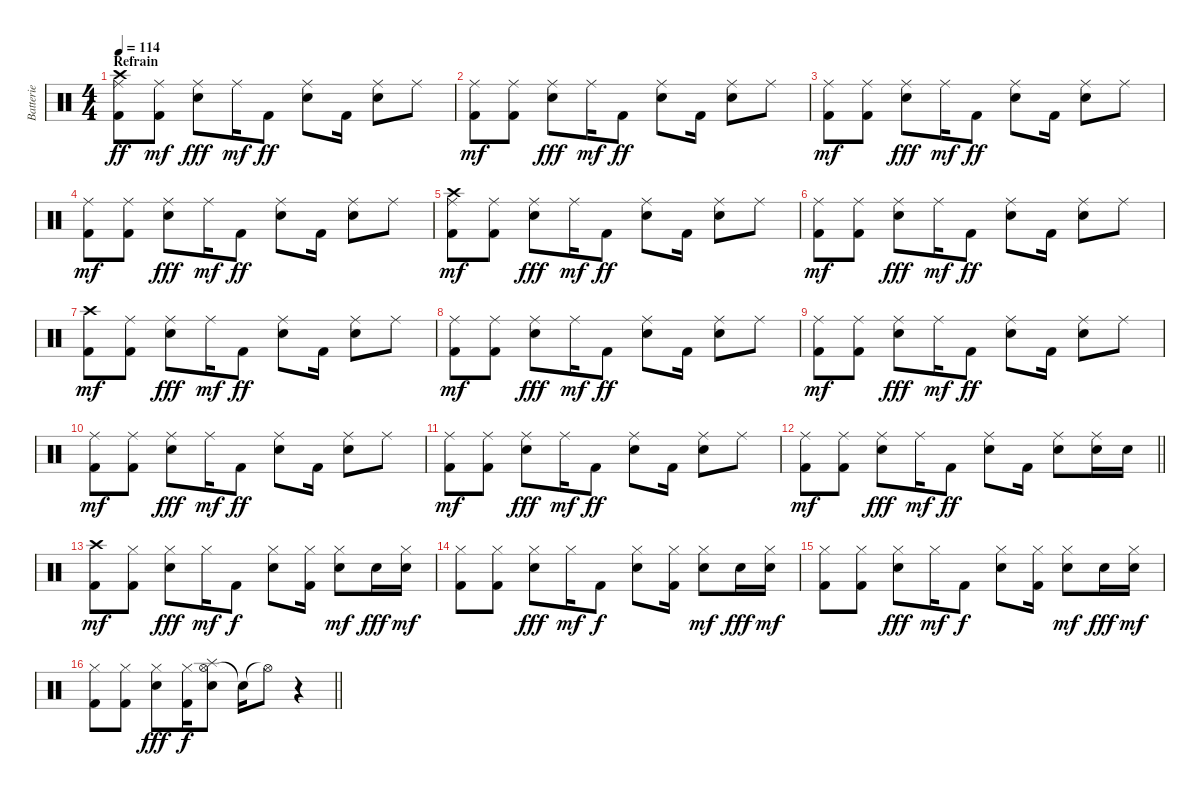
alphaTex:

\track ("Batterie" "Batterie") {instrument percussion}
\staff {score}
\articulation defaults
\ts (4 4)
\section ("" "Refrain")
\tempo 114
\clef neutral
\ks c
("Ride (middle)" "Crash high (hit)" "Kick (hit) 2").8{dy ff} ("Ride (middle)" "Kick (hit) 2").8{dy mf} ("Ride (middle)" "Snare (hit) 2").8{dy fff} "Ride (middle)".16{dy mf} "Kick (hit) 2".8{dy ff} ("Ride (middle)" "Snare (hit) 2").8 "Kick (hit) 2".16 ("Ride (middle)" "Snare (hit) 2").8 "Ride (middle)".8 |
("Ride (middle)" "Kick (hit) 2").8{dy mf} ("Ride (middle)" "Kick (hit) 2").8 ("Ride (middle)" "Snare (hit) 2").8{dy fff} "Ride (middle)".16{dy mf} "Kick (hit) 2".8{dy ff} ("Ride (middle)" "Snare (hit) 2").8 "Kick (hit) 2".16 ("Ride (middle)" "Snare (hit) 2").8 "Ride (middle)".8 |
("Ride (middle)" "Kick (hit) 2").8{dy mf} ("Ride (middle)" "Kick (hit) 2").8 ("Ride (middle)" "Snare (hit) 2").8{dy fff} "Ride (middle)".16{dy mf} "Kick (hit) 2".8{dy ff} ("Ride (middle)" "Snare (hit) 2").8 "Kick (hit) 2".16 ("Ride (middle)" "Snare (hit) 2").8 "Ride (middle)".8 |
("Ride (middle)" "Kick (hit) 2").8{dy mf} ("Ride (middle)" "Kick (hit) 2").8 ("Ride (middle)" "Snare (hit) 2").8{dy fff} "Ride (middle)".16{dy mf} "Kick (hit) 2".8{dy ff} ("Ride (middle)" "Snare (hit) 2").8 "Kick (hit) 2".16 ("Ride (middle)" "Snare (hit) 2").8 "Ride (middle)".8 |
("Ride (middle)" "Crash high (hit)" "Kick (hit) 2").8{dy mf} ("Ride (middle)" "Kick (hit) 2").8 ("Ride (middle)" "Snare (hit) 2").8{dy fff} "Ride (middle)".16{dy mf} "Kick (hit) 2".8{dy ff} ("Ride (middle)" "Snare (hit) 2").8 "Kick (hit) 2".16 ("Ride (middle)" "Snare (hit) 2").8 "Ride (middle)".8 |
("Ride (middle)" "Kick (hit) 2").8{dy mf} ("Ride (middle)" "Kick (hit) 2").8 ("Ride (middle)" "Snare (hit) 2").8{dy fff} "Ride (middle)".16{dy mf} "Kick (hit) 2".8{dy ff} ("Ride (middle)" "Snare (hit) 2").8 "Kick (hit) 2".16 ("Ride (middle)" "Snare (hit) 2").8 "Ride (middle)".8 |
("Crash high (hit)" "Kick (hit) 2").8{dy mf} ("Ride (middle)" "Kick (hit) 2").8 ("Ride (middle)" "Snare (hit) 2").8{dy fff} "Ride (middle)".16{dy mf} "Kick (hit) 2".8{dy ff} ("Ride (middle)" "Snare (hit) 2").8 "Kick (hit) 2".16 ("Ride (middle)" "Snare (hit) 2").8 "Ride (middle)".8 |
("Ride (middle)" "Kick (hit) 2").8{dy mf} ("Ride (middle)" "Kick (hit) 2").8 ("Ride (middle)" "Snare (hit) 2").8{dy fff} "Ride (middle)".16{dy mf} "Kick (hit) 2".8{dy ff} ("Ride (middle)" "Snare (hit) 2").8 "Kick (hit) 2".16 ("Ride (middle)" "Snare (hit) 2").8 "Ride (middle)".8 |
("Ride (middle)" "Kick (hit) 2").8{dy mf} ("Ride (middle)" "Kick (hit) 2").8 ("Ride (middle)" "Snare (hit) 2").8{dy fff} "Ride (middle)".16{dy mf} "Kick (hit) 2".8{dy ff} ("Ride (middle)" "Snare (hit) 2").8 "Kick (hit) 2".16 ("Ride (middle)" "Snare (hit) 2").8 "Ride (middle)".8 |
("Ride (middle)" "Kick (hit) 2").8{dy mf} ("Ride (middle)" "Kick (hit) 2").8 ("Ride (middle)" "Snare (hit) 2").8{dy fff} "Ride (middle)".16{dy mf} "Kick (hit) 2".8{dy ff} ("Ride (middle)" "Snare (hit) 2").8 "Kick (hit) 2".16 ("Ride (middle)" "Snare (hit) 2").8 "Ride (middle)".8 |
("Ride (middle)" "Kick (hit) 2").8{dy mf} ("Ride (middle)" "Kick (hit) 2").8 ("Ride (middle)" "Snare (hit) 2").8{dy fff} "Ride (middle)".16{dy mf} "Kick (hit) 2".8{dy ff} ("Ride (middle)" "Snare (hit) 2").8 "Kick (hit) 2".16 ("Ride (middle)" "Snare (hit) 2").8 "Ride (middle)".8 |
\barLineRight lightlight
("Ride (middle)" "Kick (hit) 2").8{dy mf} ("Ride (middle)" "Kick (hit) 2").8 ("Ride (middle)" "Snare (hit) 2").8{dy fff} "Ride (middle)".16{dy mf} "Kick (hit) 2".8{dy ff} ("Ride (middle)" "Snare (hit) 2").8 "Kick (hit) 2".16 ("Ride (middle)" "Snare (hit) 2").8 ("Ride (middle)" "Snare (hit) 2").16 "Snare (hit) 2".16 |
("Crash high (hit)" "Kick (hit) 2").8{dy mf} ("Hi-Hat (closed)" "Kick (hit) 2").8 ("Hi-Hat (closed)" "Snare (hit) 2").8{dy fff} "Hi-Hat (closed)".16{dy mf} "Kick (hit) 2".8{dy f} ("Hi-Hat (closed)" "Snare (hit) 2").8 ("Hi-Hat (closed)" "Kick (hit) 2").16 ("Hi-Hat (closed)" "Snare (hit) 2").8{dy mf} "Snare (hit) 2".16{dy fff} ("Hi-Hat (closed)" "Snare (hit) 2").16{dy mf} |
("Hi-Hat (closed)" "Kick (hit) 2").8 ("Hi-Hat (closed)" "Kick (hit) 2").8 ("Hi-Hat (closed)" "Snare (hit) 2").8{dy fff} "Hi-Hat (closed)".16{dy mf} "Kick (hit) 2".8{dy f} ("Hi-Hat (closed)" "Snare (hit) 2").8 ("Hi-Hat (closed)" "Kick (hit) 2").16 ("Hi-Hat (closed)" "Snare (hit) 2").8{dy mf} "Snare (hit) 2".16{dy fff} ("Hi-Hat (closed)" "Snare (hit) 2").16{dy mf} |
("Hi-Hat (closed)" "Kick (hit) 2").8 ("Hi-Hat (closed)" "Kick (hit) 2").8 ("Hi-Hat (closed)" "Snare (hit) 2").8{dy fff} "Hi-Hat (closed)".16{dy mf} "Kick (hit) 2".8{dy f} ("Hi-Hat (closed)" "Snare (hit) 2").8 ("Hi-Hat (closed)" "Kick (hit) 2").16 ("Hi-Hat (closed)" "Snare (hit) 2").8{dy mf} "Snare (hit) 2".16{dy fff} ("Hi-Hat (closed)" "Snare (hit) 2").16{dy mf} |
\barLineRight lightlight
("Hi-Hat (closed)" "Kick (hit) 2").8 ("Hi-Hat (closed)" "Kick (hit) 2").8 ("Hi-Hat (closed)" "Snare (hit) 2").8{dy fff} ("Hi-Hat (closed)" "Kick (hit) 2").16{dy f} ("Hi-Hat (open)" "Splash (hit)" "Snare (hit) 2").8 "Snare (hit)"{t}.16 "Hi-Hat (open)"{t}.8 r.4
